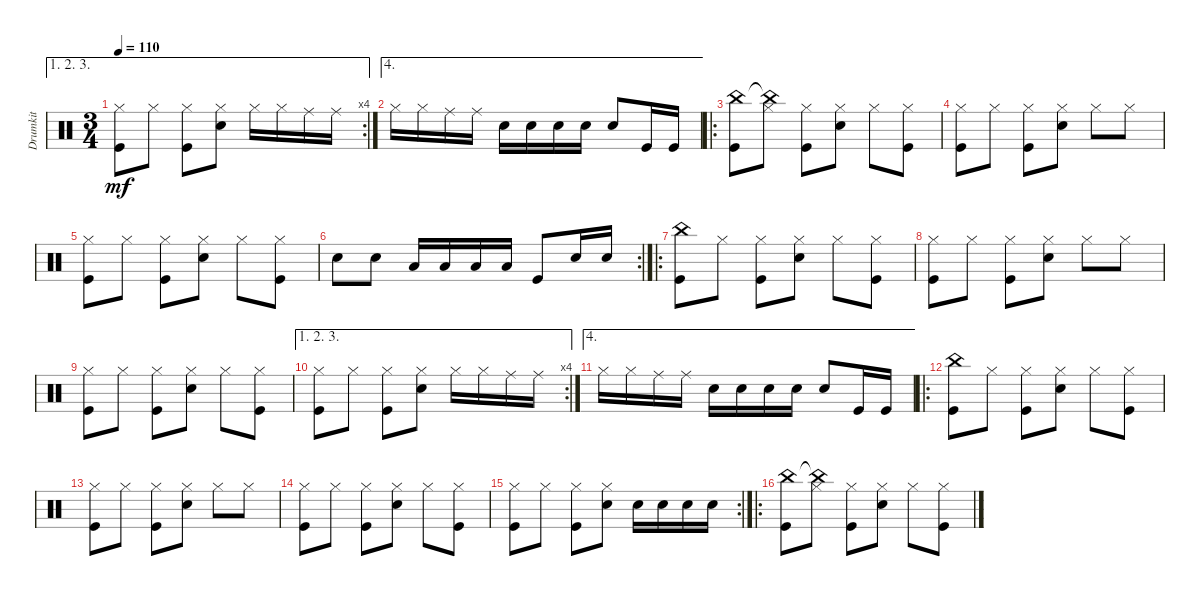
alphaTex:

\track ("Drumkit" "Drumkit") {instrument percussion}
\staff {score}
\articulation defaults
\ae (1 2 3)
\rc 4
\ts (3 4)
\tempo 110
\clef neutral
\ks c
("Kick (hit)" "Hi-Hat (closed)").8{dy mf} "Hi-Hat (closed)".8 ("Kick (hit)" "Hi-Hat (closed)").8 ("Snare (hit) 2" "Hi-Hat (closed)").8 "Hi-Hat (closed)".16 "Hi-Hat (closed)".16 "Ride (middle)".16 "Ride (middle)".16 |
\ae 4 "Hi-Hat (closed)".16 "Hi-Hat (closed)".16 "Ride (middle)".16 "Ride (middle)".16 "Snare (hit) 2".16 "Snare (hit) 2".16 "Snare (hit) 2".16 "Snare (hit) 2".16 "Snare (hit) 2".8 "Kick (hit)".16 "Kick (hit)".16
|
\ro
("Kick (hit)" "China (hit)").8 ("Hi-Hat (closed)" "China (hit)"{t}).8 ("Kick (hit)" "Hi-Hat (closed)").8 ("Snare (hit) 2" "Hi-Hat (closed)").8 "Hi-Hat (closed)".8 ("Kick (hit)" "Hi-Hat (closed)").8 |
("Kick (hit)" "Hi-Hat (closed)").8 "Hi-Hat (closed)".8 ("Kick (hit)" "Hi-Hat (closed)").8 ("Snare (hit) 2" "Hi-Hat (closed)").8 "Hi-Hat (closed)".8 "Hi-Hat (closed)".8 |
("Kick (hit)" "Hi-Hat (closed)").8 "Hi-Hat (closed)".8 ("Kick (hit)" "Hi-Hat (closed)").8 ("Snare (hit) 2" "Hi-Hat (closed)").8 "Hi-Hat (closed)".8 ("Kick (hit)" "Hi-Hat (closed)").8 |
\rc 2 "Snare (hit) 2".8 "Snare (hit) 2".8 "Low Tom (hit)".16 "Low Tom (hit)".16 "Low Tom (hit)".16 "Low Tom (hit)".16 "Kick (hit)".8 "Snare (hit) 2".16 "Snare (hit) 2".16
|
\ro
("Kick (hit)" "China (hit)").8 "Hi-Hat (closed)".8 ("Kick (hit)" "Hi-Hat (closed)").8 ("Snare (hit) 2" "Hi-Hat (closed)").8 "Hi-Hat (closed)".8 ("Kick (hit)" "Hi-Hat (closed)").8 |
("Kick (hit)" "Hi-Hat (closed)").8 "Hi-Hat (closed)".8 ("Kick (hit)" "Hi-Hat (closed)").8 ("Snare (hit) 2" "Hi-Hat (closed)").8 "Hi-Hat (closed)".8 "Hi-Hat (closed)".8 |
("Kick (hit)" "Hi-Hat (closed)").8 "Hi-Hat (closed)".8 ("Kick (hit)" "Hi-Hat (closed)").8 ("Snare (hit) 2" "Hi-Hat (closed)").8 "Hi-Hat (closed)".8 ("Kick (hit)" "Hi-Hat (closed)").8 |
\ae (1 2 3)
\rc 4
("Kick (hit)" "Hi-Hat (closed)").8 "Hi-Hat (closed)".8 ("Kick (hit)" "Hi-Hat (closed)").8 ("Snare (hit) 2" "Hi-Hat (closed)").8 "Hi-Hat (closed)".16 "Hi-Hat (closed)".16 "Ride (middle)".16 "Ride (middle)".16 |
\ae 4 "Hi-Hat (closed)".16 "Hi-Hat (closed)".16 "Ride (middle)".16 "Ride (middle)".16 "Snare (hit) 2".16 "Snare (hit) 2".16 "Snare (hit) 2".16 "Snare (hit) 2".16 "Snare (hit) 2".8 "Kick (hit)".16 "Kick (hit)".16
|
\ro
("Kick (hit)" "China (hit)").8 "Hi-Hat (closed)".8 ("Kick (hit)" "Hi-Hat (closed)").8 ("Snare (hit) 2" "Hi-Hat (closed)").8 "Hi-Hat (closed)".8 ("Kick (hit)" "Hi-Hat (closed)").8 |
("Kick (hit)" "Hi-Hat (closed)").8 "Hi-Hat (closed)".8 ("Kick (hit)" "Hi-Hat (closed)").8 ("Snare (hit) 2" "Hi-Hat (closed)").8 "Hi-Hat (closed)".8 "Hi-Hat (closed)".8 |
("Kick (hit)" "Hi-Hat (closed)").8 "Hi-Hat (closed)".8 ("Kick (hit)" "Hi-Hat (closed)").8 ("Snare (hit) 2" "Hi-Hat (closed)").8 "Hi-Hat (closed)".8 ("Kick (hit)" "Hi-Hat (closed)").8 |
\rc 2
("Kick (hit)" "Hi-Hat (closed)").8 "Hi-Hat (closed)".8 ("Kick (hit)" "Hi-Hat (closed)").8 ("Snare (hit) 2" "Hi-Hat (closed)").8 "Snare (hit) 2".16 "Snare (hit) 2".16 "Snare (hit) 2".16 "Snare (hit) 2".16 |
\ro
("Kick (hit)" "China (hit)").8 ("Hi-Hat (closed)" "China (hit)"{t}).8 ("Kick (hit)" "Hi-Hat (closed)").8 ("Snare (hit) 2" "Hi-Hat (closed)").8 "Hi-Hat (closed)".8 ("Kick (hit)" "Hi-Hat (closed)").8
